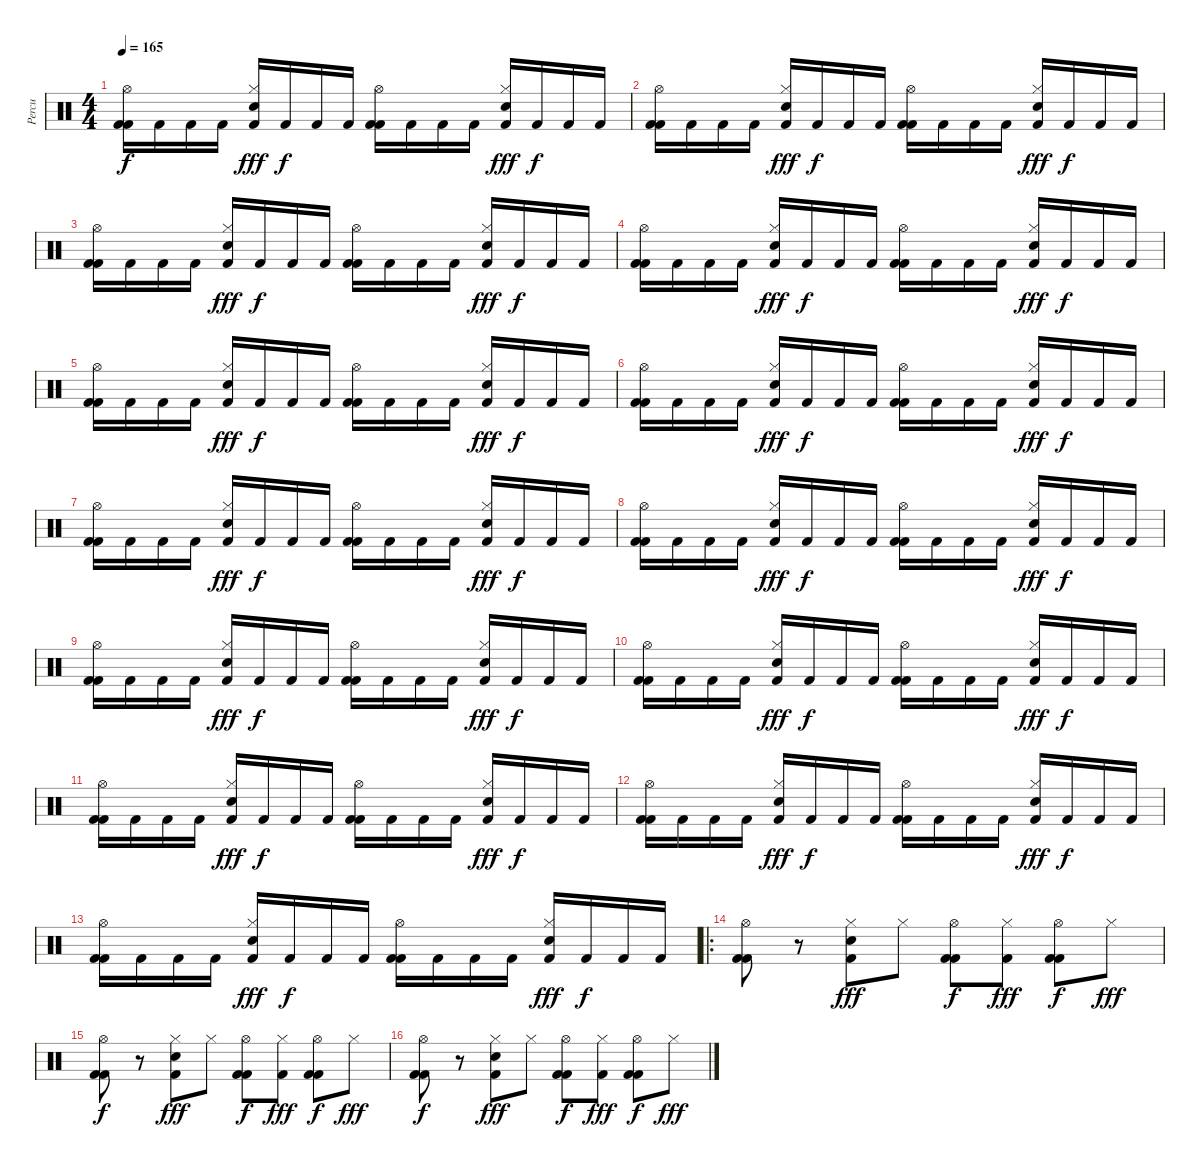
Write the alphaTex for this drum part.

\track ("Percu" "Percu") {instrument percussion}
\staff {score}
\articulation defaults
\ts (4 4)
\tempo 165
\clef neutral
\ks c
("Kick (hit) 2" "Hi-Hat (open)" "Kick (hit) 2").16{dy f} "Kick (hit) 2".16 "Kick (hit) 2".16 "Kick (hit) 2".16 ("Hi-Hat (closed)" "Kick (hit) 2" "Snare (hit) 2").16{dy fff} "Kick (hit) 2".16{dy f} "Kick (hit) 2".16 "Kick (hit) 2".16 ("Kick (hit) 2" "Hi-Hat (open)" "Kick (hit) 2").16 "Kick (hit) 2".16 "Kick (hit) 2".16 "Kick (hit) 2".16 ("Hi-Hat (closed)" "Kick (hit) 2" "Snare (hit) 2").16{dy fff} "Kick (hit) 2".16{dy f} "Kick (hit) 2".16 "Kick (hit) 2".16 |
("Kick (hit) 2" "Hi-Hat (open)" "Kick (hit) 2").16 "Kick (hit) 2".16 "Kick (hit) 2".16 "Kick (hit) 2".16 ("Hi-Hat (closed)" "Kick (hit) 2" "Snare (hit) 2").16{dy fff} "Kick (hit) 2".16{dy f} "Kick (hit) 2".16 "Kick (hit) 2".16 ("Kick (hit) 2" "Hi-Hat (open)" "Kick (hit) 2").16 "Kick (hit) 2".16 "Kick (hit) 2".16 "Kick (hit) 2".16 ("Hi-Hat (closed)" "Kick (hit) 2" "Snare (hit) 2").16{dy fff} "Kick (hit) 2".16{dy f} "Kick (hit) 2".16 "Kick (hit) 2".16 |
("Kick (hit) 2" "Hi-Hat (open)" "Kick (hit) 2").16 "Kick (hit) 2".16 "Kick (hit) 2".16 "Kick (hit) 2".16 ("Hi-Hat (closed)" "Kick (hit) 2" "Snare (hit) 2").16{dy fff} "Kick (hit) 2".16{dy f} "Kick (hit) 2".16 "Kick (hit) 2".16 ("Kick (hit) 2" "Hi-Hat (open)" "Kick (hit) 2").16 "Kick (hit) 2".16 "Kick (hit) 2".16 "Kick (hit) 2".16 ("Hi-Hat (closed)" "Kick (hit) 2" "Snare (hit) 2").16{dy fff} "Kick (hit) 2".16{dy f} "Kick (hit) 2".16 "Kick (hit) 2".16 |
("Kick (hit) 2" "Hi-Hat (open)" "Kick (hit) 2").16 "Kick (hit) 2".16 "Kick (hit) 2".16 "Kick (hit) 2".16 ("Hi-Hat (closed)" "Kick (hit) 2" "Snare (hit) 2").16{dy fff} "Kick (hit) 2".16{dy f} "Kick (hit) 2".16 "Kick (hit) 2".16 ("Kick (hit) 2" "Hi-Hat (open)" "Kick (hit) 2").16 "Kick (hit) 2".16 "Kick (hit) 2".16 "Kick (hit) 2".16 ("Hi-Hat (closed)" "Kick (hit) 2" "Snare (hit) 2").16{dy fff} "Kick (hit) 2".16{dy f} "Kick (hit) 2".16 "Kick (hit) 2".16 |
("Kick (hit) 2" "Hi-Hat (open)" "Kick (hit) 2").16 "Kick (hit) 2".16 "Kick (hit) 2".16 "Kick (hit) 2".16 ("Hi-Hat (closed)" "Kick (hit) 2" "Snare (hit) 2").16{dy fff} "Kick (hit) 2".16{dy f} "Kick (hit) 2".16 "Kick (hit) 2".16 ("Kick (hit) 2" "Hi-Hat (open)" "Kick (hit) 2").16 "Kick (hit) 2".16 "Kick (hit) 2".16 "Kick (hit) 2".16 ("Hi-Hat (closed)" "Kick (hit) 2" "Snare (hit) 2").16{dy fff} "Kick (hit) 2".16{dy f} "Kick (hit) 2".16 "Kick (hit) 2".16 |
("Kick (hit) 2" "Hi-Hat (open)" "Kick (hit) 2").16 "Kick (hit) 2".16 "Kick (hit) 2".16 "Kick (hit) 2".16 ("Hi-Hat (closed)" "Kick (hit) 2" "Snare (hit) 2").16{dy fff} "Kick (hit) 2".16{dy f} "Kick (hit) 2".16 "Kick (hit) 2".16 ("Kick (hit) 2" "Hi-Hat (open)" "Kick (hit) 2").16 "Kick (hit) 2".16 "Kick (hit) 2".16 "Kick (hit) 2".16 ("Hi-Hat (closed)" "Kick (hit) 2" "Snare (hit) 2").16{dy fff} "Kick (hit) 2".16{dy f} "Kick (hit) 2".16 "Kick (hit) 2".16 |
("Kick (hit) 2" "Hi-Hat (open)" "Kick (hit) 2").16 "Kick (hit) 2".16 "Kick (hit) 2".16 "Kick (hit) 2".16 ("Hi-Hat (closed)" "Kick (hit) 2" "Snare (hit) 2").16{dy fff} "Kick (hit) 2".16{dy f} "Kick (hit) 2".16 "Kick (hit) 2".16 ("Kick (hit) 2" "Hi-Hat (open)" "Kick (hit) 2").16 "Kick (hit) 2".16 "Kick (hit) 2".16 "Kick (hit) 2".16 ("Hi-Hat (closed)" "Kick (hit) 2" "Snare (hit) 2").16{dy fff} "Kick (hit) 2".16{dy f} "Kick (hit) 2".16 "Kick (hit) 2".16 |
("Kick (hit) 2" "Hi-Hat (open)" "Kick (hit) 2").16 "Kick (hit) 2".16 "Kick (hit) 2".16 "Kick (hit) 2".16 ("Hi-Hat (closed)" "Kick (hit) 2" "Snare (hit) 2").16{dy fff} "Kick (hit) 2".16{dy f} "Kick (hit) 2".16 "Kick (hit) 2".16 ("Kick (hit) 2" "Hi-Hat (open)" "Kick (hit) 2").16 "Kick (hit) 2".16 "Kick (hit) 2".16 "Kick (hit) 2".16 ("Hi-Hat (closed)" "Kick (hit) 2" "Snare (hit) 2").16{dy fff} "Kick (hit) 2".16{dy f} "Kick (hit) 2".16 "Kick (hit) 2".16 |
("Kick (hit) 2" "Hi-Hat (open)" "Kick (hit) 2").16 "Kick (hit) 2".16 "Kick (hit) 2".16 "Kick (hit) 2".16 ("Hi-Hat (closed)" "Kick (hit) 2" "Snare (hit) 2").16{dy fff} "Kick (hit) 2".16{dy f} "Kick (hit) 2".16 "Kick (hit) 2".16 ("Kick (hit) 2" "Hi-Hat (open)" "Kick (hit) 2").16 "Kick (hit) 2".16 "Kick (hit) 2".16 "Kick (hit) 2".16 ("Hi-Hat (closed)" "Kick (hit) 2" "Snare (hit) 2").16{dy fff} "Kick (hit) 2".16{dy f} "Kick (hit) 2".16 "Kick (hit) 2".16 |
("Kick (hit) 2" "Hi-Hat (open)" "Kick (hit) 2").16 "Kick (hit) 2".16 "Kick (hit) 2".16 "Kick (hit) 2".16 ("Hi-Hat (closed)" "Kick (hit) 2" "Snare (hit) 2").16{dy fff} "Kick (hit) 2".16{dy f} "Kick (hit) 2".16 "Kick (hit) 2".16 ("Kick (hit) 2" "Hi-Hat (open)" "Kick (hit) 2").16 "Kick (hit) 2".16 "Kick (hit) 2".16 "Kick (hit) 2".16 ("Hi-Hat (closed)" "Kick (hit) 2" "Snare (hit) 2").16{dy fff} "Kick (hit) 2".16{dy f} "Kick (hit) 2".16 "Kick (hit) 2".16 |
("Kick (hit) 2" "Hi-Hat (open)" "Kick (hit) 2").16 "Kick (hit) 2".16 "Kick (hit) 2".16 "Kick (hit) 2".16 ("Hi-Hat (closed)" "Kick (hit) 2" "Snare (hit) 2").16{dy fff} "Kick (hit) 2".16{dy f} "Kick (hit) 2".16 "Kick (hit) 2".16 ("Kick (hit) 2" "Hi-Hat (open)" "Kick (hit) 2").16 "Kick (hit) 2".16 "Kick (hit) 2".16 "Kick (hit) 2".16 ("Hi-Hat (closed)" "Kick (hit) 2" "Snare (hit) 2").16{dy fff} "Kick (hit) 2".16{dy f} "Kick (hit) 2".16 "Kick (hit) 2".16 |
("Kick (hit) 2" "Hi-Hat (open)" "Kick (hit) 2").16 "Kick (hit) 2".16 "Kick (hit) 2".16 "Kick (hit) 2".16 ("Hi-Hat (closed)" "Kick (hit) 2" "Snare (hit) 2").16{dy fff} "Kick (hit) 2".16{dy f} "Kick (hit) 2".16 "Kick (hit) 2".16 ("Kick (hit) 2" "Hi-Hat (open)" "Kick (hit) 2").16 "Kick (hit) 2".16 "Kick (hit) 2".16 "Kick (hit) 2".16 ("Hi-Hat (closed)" "Kick (hit) 2" "Snare (hit) 2").16{dy fff} "Kick (hit) 2".16{dy f} "Kick (hit) 2".16 "Kick (hit) 2".16 |
("Kick (hit) 2" "Hi-Hat (open)" "Kick (hit) 2").16 "Kick (hit) 2".16 "Kick (hit) 2".16 "Kick (hit) 2".16 ("Hi-Hat (closed)" "Kick (hit) 2" "Snare (hit) 2").16{dy fff} "Kick (hit) 2".16{dy f} "Kick (hit) 2".16 "Kick (hit) 2".16 ("Kick (hit) 2" "Hi-Hat (open)" "Kick (hit) 2").16 "Kick (hit) 2".16 "Kick (hit) 2".16 "Kick (hit) 2".16 ("Hi-Hat (closed)" "Kick (hit) 2" "Snare (hit) 2").16{dy fff} "Kick (hit) 2".16{dy f} "Kick (hit) 2".16 "Kick (hit) 2".16 |
\ro
("Kick (hit) 2" "Hi-Hat (open)" "Kick (hit) 2").8 r.8 ("Hi-Hat (closed)" "Kick (hit) 2" "Snare (hit) 2").8{dy fff} "Hi-Hat (closed)".8 ("Kick (hit) 2" "Hi-Hat (open)" "Kick (hit) 2").8{dy f} ("Hi-Hat (closed)" "Kick (hit) 2").8{dy fff} ("Kick (hit) 2" "Hi-Hat (open)" "Kick (hit) 2").8{dy f} "Hi-Hat (closed)".8{dy fff} |
("Kick (hit) 2" "Hi-Hat (open)" "Kick (hit) 2").8{dy f} r.8 ("Hi-Hat (closed)" "Kick (hit) 2" "Snare (hit) 2").8{dy fff} "Hi-Hat (closed)".8 ("Kick (hit) 2" "Hi-Hat (open)" "Kick (hit) 2").8{dy f} ("Hi-Hat (closed)" "Kick (hit) 2").8{dy fff} ("Kick (hit) 2" "Hi-Hat (open)" "Kick (hit) 2").8{dy f} "Hi-Hat (closed)".8{dy fff} |
("Kick (hit) 2" "Hi-Hat (open)" "Kick (hit) 2").8{dy f} r.8 ("Hi-Hat (closed)" "Kick (hit) 2" "Snare (hit) 2").8{dy fff} "Hi-Hat (closed)".8 ("Kick (hit) 2" "Hi-Hat (open)" "Kick (hit) 2").8{dy f} ("Hi-Hat (closed)" "Kick (hit) 2").8{dy fff} ("Kick (hit) 2" "Hi-Hat (open)" "Kick (hit) 2").8{dy f} "Hi-Hat (closed)".8{dy fff}
